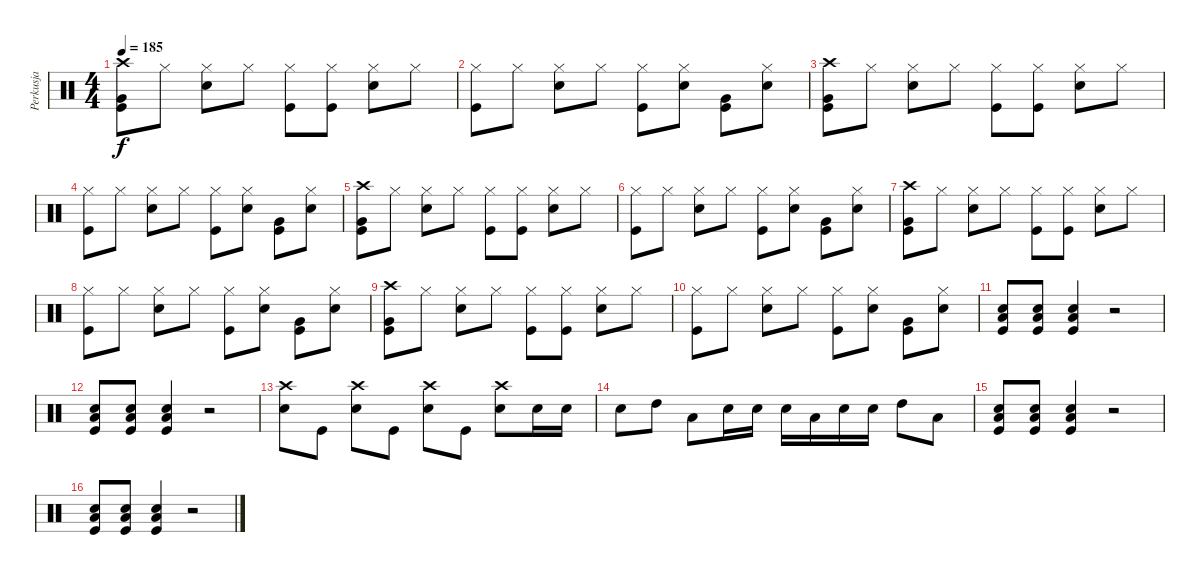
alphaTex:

\track ("Perkusja" "Perkusja") {instrument percussion}
\staff {score}
\articulation defaults
\ts (4 4)
\tempo 185
\clef neutral
\ks c
("Crash high (hit)" "Very Low Tom (hit)" "Kick (hit)").8{dy f} "Hi-Hat (closed)".8 ("Hi-Hat (closed)" "Snare (hit) 2").8 "Hi-Hat (closed)".8 ("Hi-Hat (closed)" "Kick (hit)").8 ("Hi-Hat (closed)" "Kick (hit)").8 ("Hi-Hat (closed)" "Snare (hit) 2").8 "Hi-Hat (closed)".8 |
("Hi-Hat (closed)" "Kick (hit)").8 "Hi-Hat (closed)".8 ("Hi-Hat (closed)" "Snare (hit) 2").8 "Hi-Hat (closed)".8 ("Hi-Hat (closed)" "Kick (hit)").8 ("Hi-Hat (closed)" "Snare (hit) 2").8 ("Very Low Tom (hit)" "Kick (hit)").8 ("Hi-Hat (closed)" "Snare (hit) 2").8 |
("Crash high (hit)" "Very Low Tom (hit)" "Kick (hit)").8 "Hi-Hat (closed)".8 ("Hi-Hat (closed)" "Snare (hit) 2").8 "Hi-Hat (closed)".8 ("Hi-Hat (closed)" "Kick (hit)").8 ("Hi-Hat (closed)" "Kick (hit)").8 ("Hi-Hat (closed)" "Snare (hit) 2").8 "Hi-Hat (closed)".8 |
("Hi-Hat (closed)" "Kick (hit)").8 "Hi-Hat (closed)".8 ("Hi-Hat (closed)" "Snare (hit) 2").8 "Hi-Hat (closed)".8 ("Hi-Hat (closed)" "Kick (hit)").8 ("Hi-Hat (closed)" "Snare (hit) 2").8 ("Very Low Tom (hit)" "Kick (hit)").8 ("Hi-Hat (closed)" "Snare (hit) 2").8 |
("Crash high (hit)" "Very Low Tom (hit)" "Kick (hit)").8 "Hi-Hat (closed)".8 ("Hi-Hat (closed)" "Snare (hit) 2").8 "Hi-Hat (closed)".8 ("Hi-Hat (closed)" "Kick (hit)").8 ("Hi-Hat (closed)" "Kick (hit)").8 ("Hi-Hat (closed)" "Snare (hit) 2").8 "Hi-Hat (closed)".8 |
("Hi-Hat (closed)" "Kick (hit)").8 "Hi-Hat (closed)".8 ("Hi-Hat (closed)" "Snare (hit) 2").8 "Hi-Hat (closed)".8 ("Hi-Hat (closed)" "Kick (hit)").8 ("Hi-Hat (closed)" "Snare (hit) 2").8 ("Very Low Tom (hit)" "Kick (hit)").8 ("Hi-Hat (closed)" "Snare (hit) 2").8 |
("Crash high (hit)" "Very Low Tom (hit)" "Kick (hit)").8 "Hi-Hat (closed)".8 ("Hi-Hat (closed)" "Snare (hit) 2").8 "Hi-Hat (closed)".8 ("Hi-Hat (closed)" "Kick (hit)").8 ("Hi-Hat (closed)" "Kick (hit)").8 ("Hi-Hat (closed)" "Snare (hit) 2").8 "Hi-Hat (closed)".8 |
("Hi-Hat (closed)" "Kick (hit)").8 "Hi-Hat (closed)".8 ("Hi-Hat (closed)" "Snare (hit) 2").8 "Hi-Hat (closed)".8 ("Hi-Hat (closed)" "Kick (hit)").8 ("Hi-Hat (closed)" "Snare (hit) 2").8 ("Very Low Tom (hit)" "Kick (hit)").8 ("Hi-Hat (closed)" "Snare (hit) 2").8 |
("Crash high (hit)" "Very Low Tom (hit)" "Kick (hit)").8 "Hi-Hat (closed)".8 ("Hi-Hat (closed)" "Snare (hit) 2").8 "Hi-Hat (closed)".8 ("Hi-Hat (closed)" "Kick (hit)").8 ("Hi-Hat (closed)" "Kick (hit)").8 ("Hi-Hat (closed)" "Snare (hit) 2").8 "Hi-Hat (closed)".8 |
("Hi-Hat (closed)" "Kick (hit)").8 "Hi-Hat (closed)".8 ("Hi-Hat (closed)" "Snare (hit) 2").8 "Hi-Hat (closed)".8 ("Hi-Hat (closed)" "Kick (hit)").8 ("Hi-Hat (closed)" "Snare (hit) 2").8 ("Very Low Tom (hit)" "Kick (hit)").8 ("Hi-Hat (closed)" "Snare (hit) 2").8 |
("Snare (hit) 2" "Low Floor Tom (hit)" "Kick (hit)").8 ("Snare (hit) 2" "Low Floor Tom (hit)" "Kick (hit)").8 ("Snare (hit) 2" "Low Floor Tom (hit)" "Kick (hit)").4 r.2 |
("Snare (hit) 2" "Low Floor Tom (hit)" "Kick (hit)").8 ("Snare (hit) 2" "Low Floor Tom (hit)" "Kick (hit)").8 ("Snare (hit) 2" "Low Floor Tom (hit)" "Kick (hit)").4 r.2 |
("Crash high (hit)" "Snare (hit) 2").8 "Kick (hit)".8 ("Crash high (hit)" "Snare (hit) 2").8 "Kick (hit)".8 ("Crash high (hit)" "Snare (hit) 2").8 "Kick (hit)".8 ("Crash high (hit)" "Snare (hit) 2").8 "Snare (hit) 2".16 "Snare (hit) 2".16 |
"Snare (hit) 2".8 "High Tom (hit)".8 "Low Floor Tom (hit)".8 "Snare (hit) 2".16 "Snare (hit) 2".16 "Snare (hit) 2".16 "Low Floor Tom (hit)".16 "Snare (hit) 2".16 "Snare (hit) 2".16 "High Tom (hit)".8 "Low Floor Tom (hit)".8 |
("Snare (hit) 2" "Low Floor Tom (hit)" "Kick (hit)").8 ("Snare (hit) 2" "Low Floor Tom (hit)" "Kick (hit)").8 ("Snare (hit) 2" "Low Floor Tom (hit)" "Kick (hit)").4 r.2 |
("Snare (hit) 2" "Low Floor Tom (hit)" "Kick (hit)").8 ("Snare (hit) 2" "Low Floor Tom (hit)" "Kick (hit)").8 ("Snare (hit) 2" "Low Floor Tom (hit)" "Kick (hit)").4 r.2
